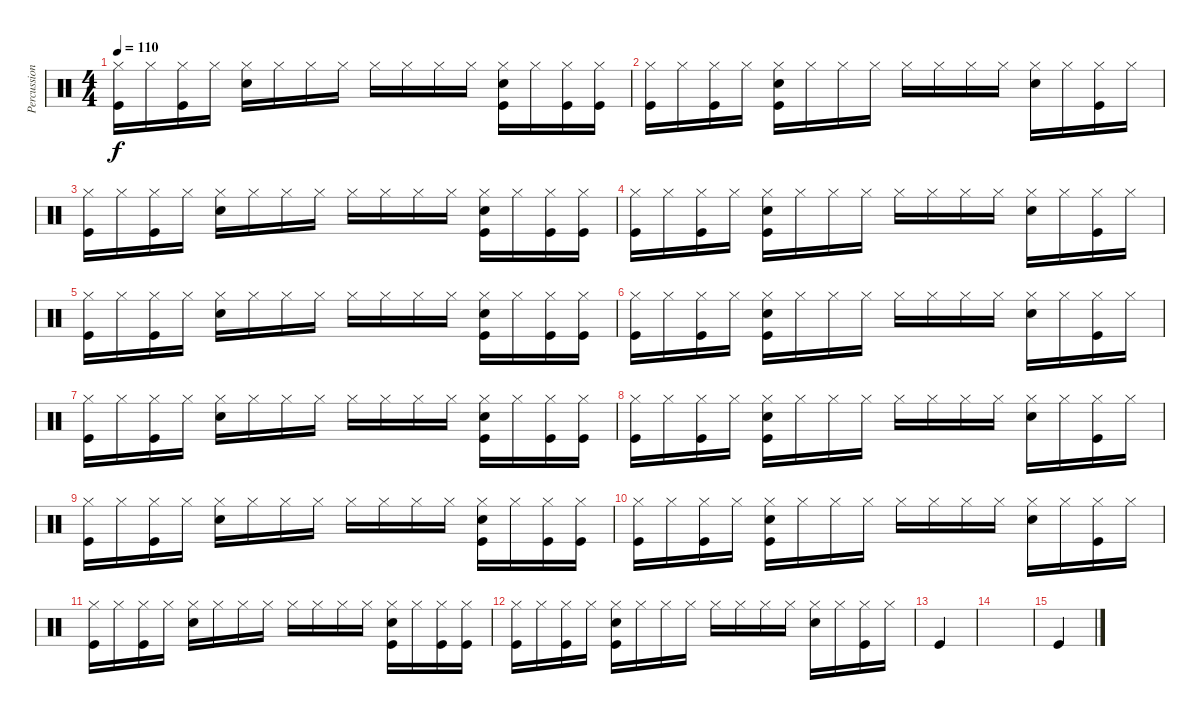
\track ("Percussion" "Percussion") {instrument percussion}
\staff {score}
\articulation defaults
\ts (4 4)
\tempo 110
\clef neutral
\ks c
("Hi-Hat (closed)" "Kick (hit)").16{dy f} "Hi-Hat (closed)".16 ("Hi-Hat (closed)" "Kick (hit)").16 "Hi-Hat (closed)".16 ("Hi-Hat (closed)" "Snare (hit) 2").16 "Hi-Hat (closed)".16 "Hi-Hat (closed)".16 "Hi-Hat (closed)".16 "Hi-Hat (closed)".16 "Hi-Hat (closed)".16 "Hi-Hat (closed)".16 "Hi-Hat (closed)".16 ("Hi-Hat (closed)" "Snare (hit) 2" "Kick (hit)").16 "Hi-Hat (closed)".16 ("Hi-Hat (closed)" "Kick (hit)").16 ("Hi-Hat (closed)" "Kick (hit)").16 |
("Hi-Hat (closed)" "Kick (hit)").16 "Hi-Hat (closed)".16 ("Hi-Hat (closed)" "Kick (hit)").16 "Hi-Hat (closed)".16 ("Hi-Hat (closed)" "Snare (hit) 2" "Kick (hit)").16 "Hi-Hat (closed)".16 "Hi-Hat (closed)".16 "Hi-Hat (closed)".16 "Hi-Hat (closed)".16 "Hi-Hat (closed)".16 "Hi-Hat (closed)".16 "Hi-Hat (closed)".16 ("Hi-Hat (closed)" "Snare (hit) 2").16 "Hi-Hat (closed)".16 ("Hi-Hat (closed)" "Kick (hit)").16 "Hi-Hat (closed)".16 |
("Hi-Hat (closed)" "Kick (hit)").16 "Hi-Hat (closed)".16 ("Hi-Hat (closed)" "Kick (hit)").16 "Hi-Hat (closed)".16 ("Hi-Hat (closed)" "Snare (hit) 2").16 "Hi-Hat (closed)".16 "Hi-Hat (closed)".16 "Hi-Hat (closed)".16 "Hi-Hat (closed)".16 "Hi-Hat (closed)".16 "Hi-Hat (closed)".16 "Hi-Hat (closed)".16 ("Hi-Hat (closed)" "Snare (hit) 2" "Kick (hit)").16 "Hi-Hat (closed)".16 ("Hi-Hat (closed)" "Kick (hit)").16 ("Hi-Hat (closed)" "Kick (hit)").16 |
("Hi-Hat (closed)" "Kick (hit)").16 "Hi-Hat (closed)".16 ("Hi-Hat (closed)" "Kick (hit)").16 "Hi-Hat (closed)".16 ("Hi-Hat (closed)" "Snare (hit) 2" "Kick (hit)").16 "Hi-Hat (closed)".16 "Hi-Hat (closed)".16 "Hi-Hat (closed)".16 "Hi-Hat (closed)".16 "Hi-Hat (closed)".16 "Hi-Hat (closed)".16 "Hi-Hat (closed)".16 ("Hi-Hat (closed)" "Snare (hit) 2").16 "Hi-Hat (closed)".16 ("Hi-Hat (closed)" "Kick (hit)").16 "Hi-Hat (closed)".16 |
("Hi-Hat (closed)" "Kick (hit)").16 "Hi-Hat (closed)".16 ("Hi-Hat (closed)" "Kick (hit)").16 "Hi-Hat (closed)".16 ("Hi-Hat (closed)" "Snare (hit) 2").16 "Hi-Hat (closed)".16 "Hi-Hat (closed)".16 "Hi-Hat (closed)".16 "Hi-Hat (closed)".16 "Hi-Hat (closed)".16 "Hi-Hat (closed)".16 "Hi-Hat (closed)".16 ("Hi-Hat (closed)" "Snare (hit) 2" "Kick (hit)").16 "Hi-Hat (closed)".16 ("Hi-Hat (closed)" "Kick (hit)").16 ("Hi-Hat (closed)" "Kick (hit)").16 |
("Hi-Hat (closed)" "Kick (hit)").16 "Hi-Hat (closed)".16 ("Hi-Hat (closed)" "Kick (hit)").16 "Hi-Hat (closed)".16 ("Hi-Hat (closed)" "Snare (hit) 2" "Kick (hit)").16 "Hi-Hat (closed)".16 "Hi-Hat (closed)".16 "Hi-Hat (closed)".16 "Hi-Hat (closed)".16 "Hi-Hat (closed)".16 "Hi-Hat (closed)".16 "Hi-Hat (closed)".16 ("Hi-Hat (closed)" "Snare (hit) 2").16 "Hi-Hat (closed)".16 ("Hi-Hat (closed)" "Kick (hit)").16 "Hi-Hat (closed)".16 |
("Hi-Hat (closed)" "Kick (hit)").16 "Hi-Hat (closed)".16 ("Hi-Hat (closed)" "Kick (hit)").16 "Hi-Hat (closed)".16 ("Hi-Hat (closed)" "Snare (hit) 2").16 "Hi-Hat (closed)".16 "Hi-Hat (closed)".16 "Hi-Hat (closed)".16 "Hi-Hat (closed)".16 "Hi-Hat (closed)".16 "Hi-Hat (closed)".16 "Hi-Hat (closed)".16 ("Hi-Hat (closed)" "Snare (hit) 2" "Kick (hit)").16 "Hi-Hat (closed)".16 ("Hi-Hat (closed)" "Kick (hit)").16 ("Hi-Hat (closed)" "Kick (hit)").16 |
("Hi-Hat (closed)" "Kick (hit)").16 "Hi-Hat (closed)".16 ("Hi-Hat (closed)" "Kick (hit)").16 "Hi-Hat (closed)".16 ("Hi-Hat (closed)" "Snare (hit) 2" "Kick (hit)").16 "Hi-Hat (closed)".16 "Hi-Hat (closed)".16 "Hi-Hat (closed)".16 "Hi-Hat (closed)".16 "Hi-Hat (closed)".16 "Hi-Hat (closed)".16 "Hi-Hat (closed)".16 ("Hi-Hat (closed)" "Snare (hit) 2").16 "Hi-Hat (closed)".16 ("Hi-Hat (closed)" "Kick (hit)").16 "Hi-Hat (closed)".16 |
("Hi-Hat (closed)" "Kick (hit)").16 "Hi-Hat (closed)".16 ("Hi-Hat (closed)" "Kick (hit)").16 "Hi-Hat (closed)".16 ("Hi-Hat (closed)" "Snare (hit) 2").16 "Hi-Hat (closed)".16 "Hi-Hat (closed)".16 "Hi-Hat (closed)".16 "Hi-Hat (closed)".16 "Hi-Hat (closed)".16 "Hi-Hat (closed)".16 "Hi-Hat (closed)".16 ("Hi-Hat (closed)" "Snare (hit) 2" "Kick (hit)").16 "Hi-Hat (closed)".16 ("Hi-Hat (closed)" "Kick (hit)").16 ("Hi-Hat (closed)" "Kick (hit)").16 |
("Hi-Hat (closed)" "Kick (hit)").16 "Hi-Hat (closed)".16 ("Hi-Hat (closed)" "Kick (hit)").16 "Hi-Hat (closed)".16 ("Hi-Hat (closed)" "Snare (hit) 2" "Kick (hit)").16 "Hi-Hat (closed)".16 "Hi-Hat (closed)".16 "Hi-Hat (closed)".16 "Hi-Hat (closed)".16 "Hi-Hat (closed)".16 "Hi-Hat (closed)".16 "Hi-Hat (closed)".16 ("Hi-Hat (closed)" "Snare (hit) 2").16 "Hi-Hat (closed)".16 ("Hi-Hat (closed)" "Kick (hit)").16 "Hi-Hat (closed)".16 |
("Hi-Hat (closed)" "Kick (hit)").16 "Hi-Hat (closed)".16 ("Hi-Hat (closed)" "Kick (hit)").16 "Hi-Hat (closed)".16 ("Hi-Hat (closed)" "Snare (hit) 2").16 "Hi-Hat (closed)".16 "Hi-Hat (closed)".16 "Hi-Hat (closed)".16 "Hi-Hat (closed)".16 "Hi-Hat (closed)".16 "Hi-Hat (closed)".16 "Hi-Hat (closed)".16 ("Hi-Hat (closed)" "Snare (hit) 2" "Kick (hit)").16 "Hi-Hat (closed)".16 ("Hi-Hat (closed)" "Kick (hit)").16 ("Hi-Hat (closed)" "Kick (hit)").16 |
("Hi-Hat (closed)" "Kick (hit)").16 "Hi-Hat (closed)".16 ("Hi-Hat (closed)" "Kick (hit)").16 "Hi-Hat (closed)".16 ("Hi-Hat (closed)" "Snare (hit) 2" "Kick (hit)").16 "Hi-Hat (closed)".16 "Hi-Hat (closed)".16 "Hi-Hat (closed)".16 "Hi-Hat (closed)".16 "Hi-Hat (closed)".16 "Hi-Hat (closed)".16 "Hi-Hat (closed)".16 ("Hi-Hat (closed)" "Snare (hit) 2").16 "Hi-Hat (closed)".16 ("Hi-Hat (closed)" "Kick (hit)").16 "Hi-Hat (closed)".16 |
"Kick (hit)".4 |
|
"Kick (hit)".4
